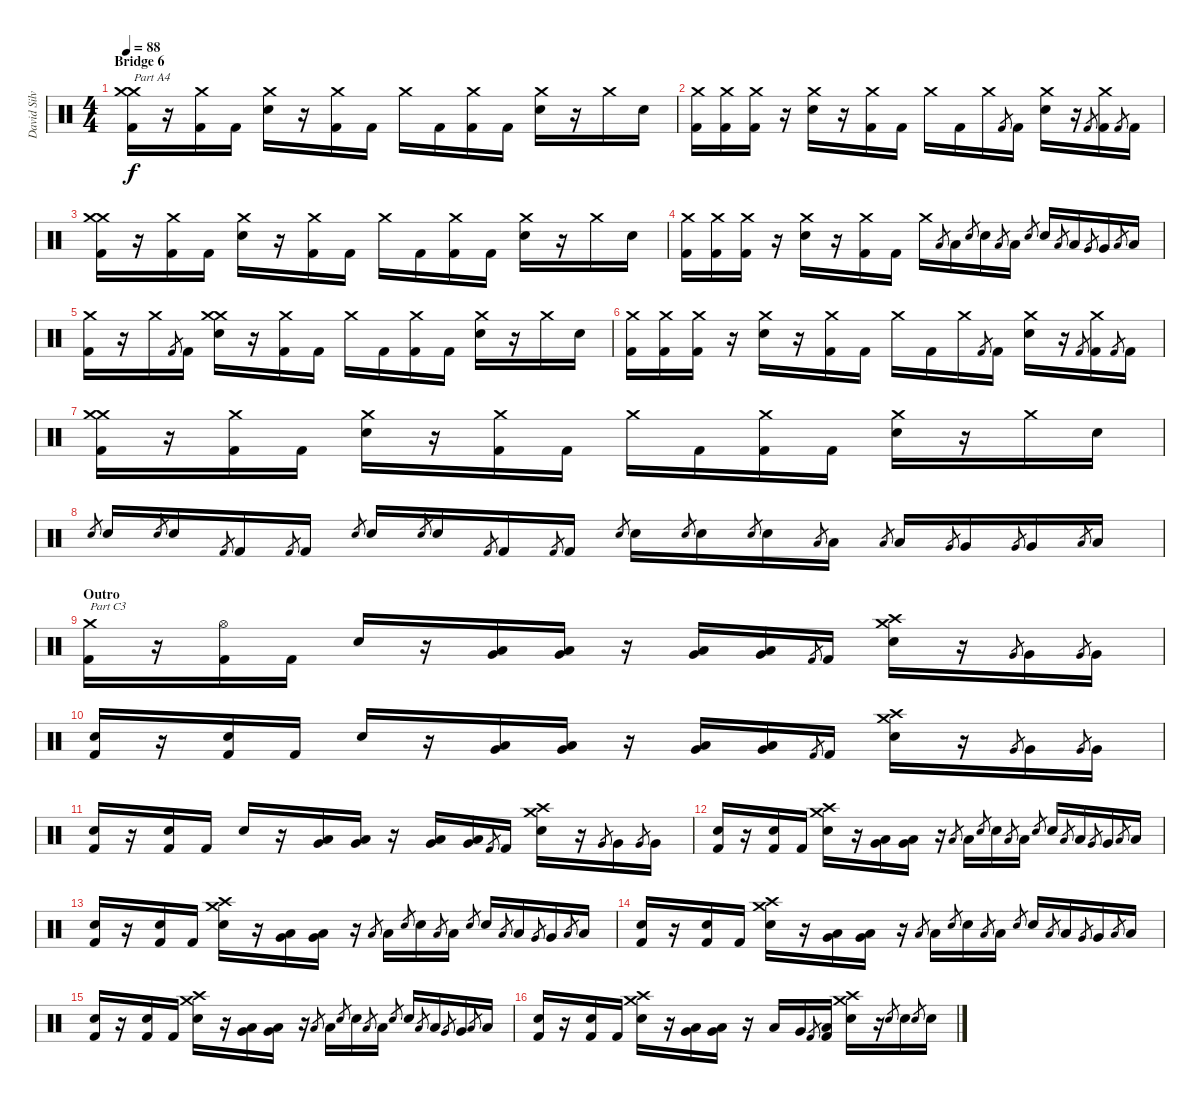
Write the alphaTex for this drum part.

\track ("David Silveria" "David Silv") {instrument percussion}
\staff {score}
\articulation defaults
\ts (4 4)
\section ("" "Bridge 6")
\tempo 88
\clef neutral
\ks c
("Crash medium (hit)" "Crash medium (hit)" "Kick (hit) 2").16{txt "Part A4" dy f} r.16 ("Crash medium (hit)" "Kick (hit) 2").16 "Kick (hit) 2".16 ("Crash medium (hit)" "Snare (hit) 2").16 r.16 ("Crash medium (hit)" "Kick (hit) 2").16 "Kick (hit) 2".16 "Crash medium (hit)".16 "Kick (hit) 2".16 ("Crash medium (hit)" "Kick (hit) 2").16 "Kick (hit) 2".16 ("Crash medium (hit)" "Snare (hit) 2").16 r.16 "Crash medium (hit)".16 "Snare (hit) 2".16 |
("Crash medium (hit)" "Kick (hit) 2").16 ("Crash medium (hit)" "Kick (hit) 2").16 ("Crash medium (hit)" "Kick (hit) 2").16 r.16 ("Crash medium (hit)" "Snare (hit) 2").16 r.16 ("Crash medium (hit)" "Kick (hit) 2").16 "Kick (hit) 2".16 "Crash medium (hit)".16 "Kick (hit) 2".16 "Crash medium (hit)".16 "Kick (hit) 2".8{gr} "Kick (hit) 2".16 ("Crash medium (hit)" "Snare (hit) 2").16 r.16 "Kick (hit) 2".8{gr} ("Crash medium (hit)" "Kick (hit) 2").16 "Kick (hit) 2".8{gr} "Kick (hit) 2".16 |
("Crash medium (hit)" "Crash medium (hit)" "Kick (hit) 2").16 r.16 ("Crash medium (hit)" "Kick (hit) 2").16 "Kick (hit) 2".16 ("Crash medium (hit)" "Snare (hit) 2").16 r.16 ("Crash medium (hit)" "Kick (hit) 2").16 "Kick (hit) 2".16 "Crash medium (hit)".16 "Kick (hit) 2".16 ("Crash medium (hit)" "Kick (hit) 2").16 "Kick (hit) 2".16 ("Crash medium (hit)" "Snare (hit) 2").16 r.16 "Crash medium (hit)".16 "Snare (hit) 2".16 |
("Crash medium (hit)" "Kick (hit) 2").16 ("Crash medium (hit)" "Kick (hit) 2").16 ("Crash medium (hit)" "Kick (hit) 2").16 r.16 ("Crash medium (hit)" "Snare (hit) 2").16 r.16 ("Crash medium (hit)" "Kick (hit) 2").16 "Kick (hit) 2".16 "Crash medium (hit)".16 "Low Tom (hit)".8{gr} "Low Tom (hit)".16 "Snare (hit) 2".8{gr} "Snare (hit) 2".16 "Low Tom (hit)".8{gr} "Low Tom (hit)".16 "Snare (hit) 2".8{gr} "Snare (hit) 2".16 "Low Tom (hit)".8{gr} "Low Tom (hit)".16 "Very Low Tom (hit)".8{gr} "Very Low Tom (hit)".16 "Low Floor Tom (hit)".8{gr} "Low Floor Tom (hit)".16 |
("Crash medium (hit)" "Kick (hit) 2").16 r.16 "Crash medium (hit)".16 "Kick (hit) 2".8{gr} "Kick (hit) 2".16 ("Crash medium (hit)" "Crash medium (hit)" "Snare (hit) 2").16 r.16 ("Crash medium (hit)" "Kick (hit) 2").16 "Kick (hit) 2".16 "Crash medium (hit)".16 "Kick (hit) 2".16 ("Crash medium (hit)" "Kick (hit) 2").16 "Kick (hit) 2".16 ("Crash medium (hit)" "Snare (hit) 2").16 r.16 "Crash medium (hit)".16 "Snare (hit) 2".16 |
("Crash medium (hit)" "Kick (hit) 2").16 ("Crash medium (hit)" "Kick (hit) 2").16 ("Crash medium (hit)" "Kick (hit) 2").16 r.16 ("Crash medium (hit)" "Snare (hit) 2").16 r.16 ("Crash medium (hit)" "Kick (hit) 2").16 "Kick (hit) 2".16 "Crash medium (hit)".16 "Kick (hit) 2".16 "Crash medium (hit)".16 "Kick (hit) 2".8{gr} "Kick (hit) 2".16 ("Crash medium (hit)" "Snare (hit) 2").16 r.16 "Kick (hit) 2".8{gr} ("Crash medium (hit)" "Kick (hit) 2").16 "Kick (hit) 2".8{gr} "Kick (hit) 2".16 |
("Crash medium (hit)" "Crash medium (hit)" "Kick (hit) 2").16 r.16 ("Crash medium (hit)" "Kick (hit) 2").16 "Kick (hit) 2".16 ("Crash medium (hit)" "Snare (hit) 2").16 r.16 ("Crash medium (hit)" "Kick (hit) 2").16 "Kick (hit) 2".16 "Crash medium (hit)".16 "Kick (hit) 2".16 ("Crash medium (hit)" "Kick (hit) 2").16 "Kick (hit) 2".16 ("Crash medium (hit)" "Snare (hit) 2").16 r.16 "Crash medium (hit)".16 "Snare (hit) 2".16 |
"Snare (hit) 2".8{gr} "Snare (hit) 2".16 "Snare (hit) 2".8{gr} "Snare (hit) 2".16 "Kick (hit) 2".8{gr} "Kick (hit) 2".16 "Kick (hit) 2".8{gr} "Kick (hit) 2".16 "Snare (hit) 2".8{gr} "Snare (hit) 2".16 "Snare (hit) 2".8{gr} "Snare (hit) 2".16 "Kick (hit) 2".8{gr} "Kick (hit) 2".16 "Kick (hit) 2".8{gr} "Kick (hit) 2".16 "Snare (hit) 2".8{gr} "Snare (hit) 2".16 "Snare (hit) 2".8{gr} "Snare (hit) 2".16 "Snare (hit) 2".8{gr} "Snare (hit) 2".16 "Low Tom (hit)".8{gr} "Low Tom (hit)".16 "Low Tom (hit)".8{gr} "Low Tom (hit)".16 "Very Low Tom (hit)".8{gr} "Very Low Tom (hit)".16 "Very Low Tom (hit)".8{gr} "Very Low Tom (hit)".16 "Low Floor Tom (hit)".8{gr} "Low Floor Tom (hit)".16 |
\section ("" "Outro")
("Crash medium (hit)" "Kick (hit) 2").16{txt "Part C3"} r.16 ("Hi-Hat (open)" "Kick (hit) 2").16 "Kick (hit) 2".16 "Snare (hit) 2".16 r.16 ("Low Tom (hit)" "Very Low Tom (hit)").16 ("Low Tom (hit)" "Very Low Tom (hit)").16 r.16 ("Very Low Tom (hit)" "Low Floor Tom (hit)").16 ("Very Low Tom (hit)" "Low Floor Tom (hit)").16 "Kick (hit) 2".8{gr} "Kick (hit) 2".16 ("Crash medium (hit)" "Crash high (hit)" "Snare (hit) 2").16 r.16 "Very Low Tom (hit)".8{gr} "Very Low Tom (hit)".16 "Very Low Tom (hit)".8{gr} "Very Low Tom (hit)".16 |
("Snare (hit) 2" "Kick (hit) 2").16 r.16 ("Snare (hit) 2" "Kick (hit) 2").16 "Kick (hit) 2".16 "Snare (hit) 2".16 r.16 ("Low Tom (hit)" "Very Low Tom (hit)").16 ("Low Tom (hit)" "Very Low Tom (hit)").16 r.16 ("Very Low Tom (hit)" "Low Floor Tom (hit)").16 ("Very Low Tom (hit)" "Low Floor Tom (hit)").16 "Kick (hit) 2".8{gr} "Kick (hit) 2".16 ("Crash medium (hit)" "Crash high (hit)" "Snare (hit) 2").16 r.16 "Very Low Tom (hit)".8{gr} "Very Low Tom (hit)".16 "Very Low Tom (hit)".8{gr} "Very Low Tom (hit)".16 |
("Snare (hit) 2" "Kick (hit) 2").16 r.16 ("Snare (hit) 2" "Kick (hit) 2").16 "Kick (hit) 2".16 "Snare (hit) 2".16 r.16 ("Low Tom (hit)" "Very Low Tom (hit)").16 ("Low Tom (hit)" "Very Low Tom (hit)").16 r.16 ("Very Low Tom (hit)" "Low Floor Tom (hit)").16 ("Very Low Tom (hit)" "Low Floor Tom (hit)").16 "Kick (hit) 2".8{gr} "Kick (hit) 2".16 ("Crash medium (hit)" "Crash high (hit)" "Snare (hit) 2").16 r.16 "Very Low Tom (hit)".8{gr} "Very Low Tom (hit)".16 "Very Low Tom (hit)".8{gr} "Very Low Tom (hit)".16 |
("Snare (hit) 2" "Kick (hit) 2").16 r.16 ("Snare (hit) 2" "Kick (hit) 2").16 "Kick (hit) 2".16 ("Crash medium (hit)" "Crash high (hit)" "Snare (hit) 2").16 r.16 ("Low Tom (hit)" "Very Low Tom (hit)").16 ("Low Tom (hit)" "Very Low Tom (hit)").16 r.16 "Low Tom (hit)".8{gr} "Low Tom (hit)".16 "Snare (hit) 2".8{gr} "Snare (hit) 2".16 "Low Tom (hit)".8{gr} "Low Tom (hit)".16 "Snare (hit) 2".8{gr} "Snare (hit) 2".16 "Low Tom (hit)".8{gr} "Low Tom (hit)".16 "Very Low Tom (hit)".8{gr} "Very Low Tom (hit)".16 "Low Floor Tom (hit)".8{gr} "Low Floor Tom (hit)".16 |
("Snare (hit) 2" "Kick (hit) 2").16 r.16 ("Snare (hit) 2" "Kick (hit) 2").16 "Kick (hit) 2".16 ("Crash medium (hit)" "Crash high (hit)" "Snare (hit) 2").16 r.16 ("Low Tom (hit)" "Very Low Tom (hit)").16 ("Low Tom (hit)" "Very Low Tom (hit)").16 r.16 "Low Tom (hit)".8{gr} "Low Tom (hit)".16 "Snare (hit) 2".8{gr} "Snare (hit) 2".16 "Low Tom (hit)".8{gr} "Low Tom (hit)".16 "Snare (hit) 2".8{gr} "Snare (hit) 2".16 "Low Tom (hit)".8{gr} "Low Tom (hit)".16 "Very Low Tom (hit)".8{gr} "Very Low Tom (hit)".16 "Low Floor Tom (hit)".8{gr} "Low Floor Tom (hit)".16 |
("Snare (hit) 2" "Kick (hit) 2").16 r.16 ("Snare (hit) 2" "Kick (hit) 2").16 "Kick (hit) 2".16 ("Crash medium (hit)" "Crash high (hit)" "Snare (hit) 2").16 r.16 ("Low Tom (hit)" "Very Low Tom (hit)").16 ("Low Tom (hit)" "Very Low Tom (hit)").16 r.16 "Low Tom (hit)".8{gr} "Low Tom (hit)".16 "Snare (hit) 2".8{gr} "Snare (hit) 2".16 "Low Tom (hit)".8{gr} "Low Tom (hit)".16 "Snare (hit) 2".8{gr} "Snare (hit) 2".16 "Low Tom (hit)".8{gr} "Low Tom (hit)".16 "Very Low Tom (hit)".8{gr} "Very Low Tom (hit)".16 "Low Floor Tom (hit)".8{gr} "Low Floor Tom (hit)".16 |
("Snare (hit) 2" "Kick (hit) 2").16 r.16 ("Snare (hit) 2" "Kick (hit) 2").16 "Kick (hit) 2".16 ("Crash medium (hit)" "Crash high (hit)" "Snare (hit) 2").16 r.16 ("Low Tom (hit)" "Very Low Tom (hit)").16 ("Low Tom (hit)" "Very Low Tom (hit)").16 r.16 "Low Tom (hit)".8{gr} "Low Tom (hit)".16 "Snare (hit) 2".8{gr} "Snare (hit) 2".16 "Low Tom (hit)".8{gr} "Low Tom (hit)".16 "Snare (hit) 2".8{gr} "Snare (hit) 2".16 "Low Tom (hit)".8{gr} "Low Tom (hit)".16 "Very Low Tom (hit)".8{gr} "Very Low Tom (hit)".16 "Low Floor Tom (hit)".8{gr} "Low Floor Tom (hit)".16 |
("Snare (hit) 2" "Kick (hit) 2").16 r.16 ("Snare (hit) 2" "Kick (hit) 2").16 "Kick (hit) 2".16 ("Crash medium (hit)" "Crash high (hit)" "Snare (hit) 2").16 r.16 ("Low Tom (hit)" "Very Low Tom (hit)").16 ("Low Tom (hit)" "Very Low Tom (hit)").16 r.16 "Low Tom (hit)".16 "Very Low Tom (hit)".16 "Kick (hit) 2".8{gr} ("Low Floor Tom (hit)" "Kick (hit) 2").16 ("Crash medium (hit)" "Crash high (hit)" "Snare (hit) 2").16 r.16 "Snare (hit) 2".8{gr} "Snare (hit) 2".16 "Snare (hit) 2".8{gr} "Snare (hit) 2".16
